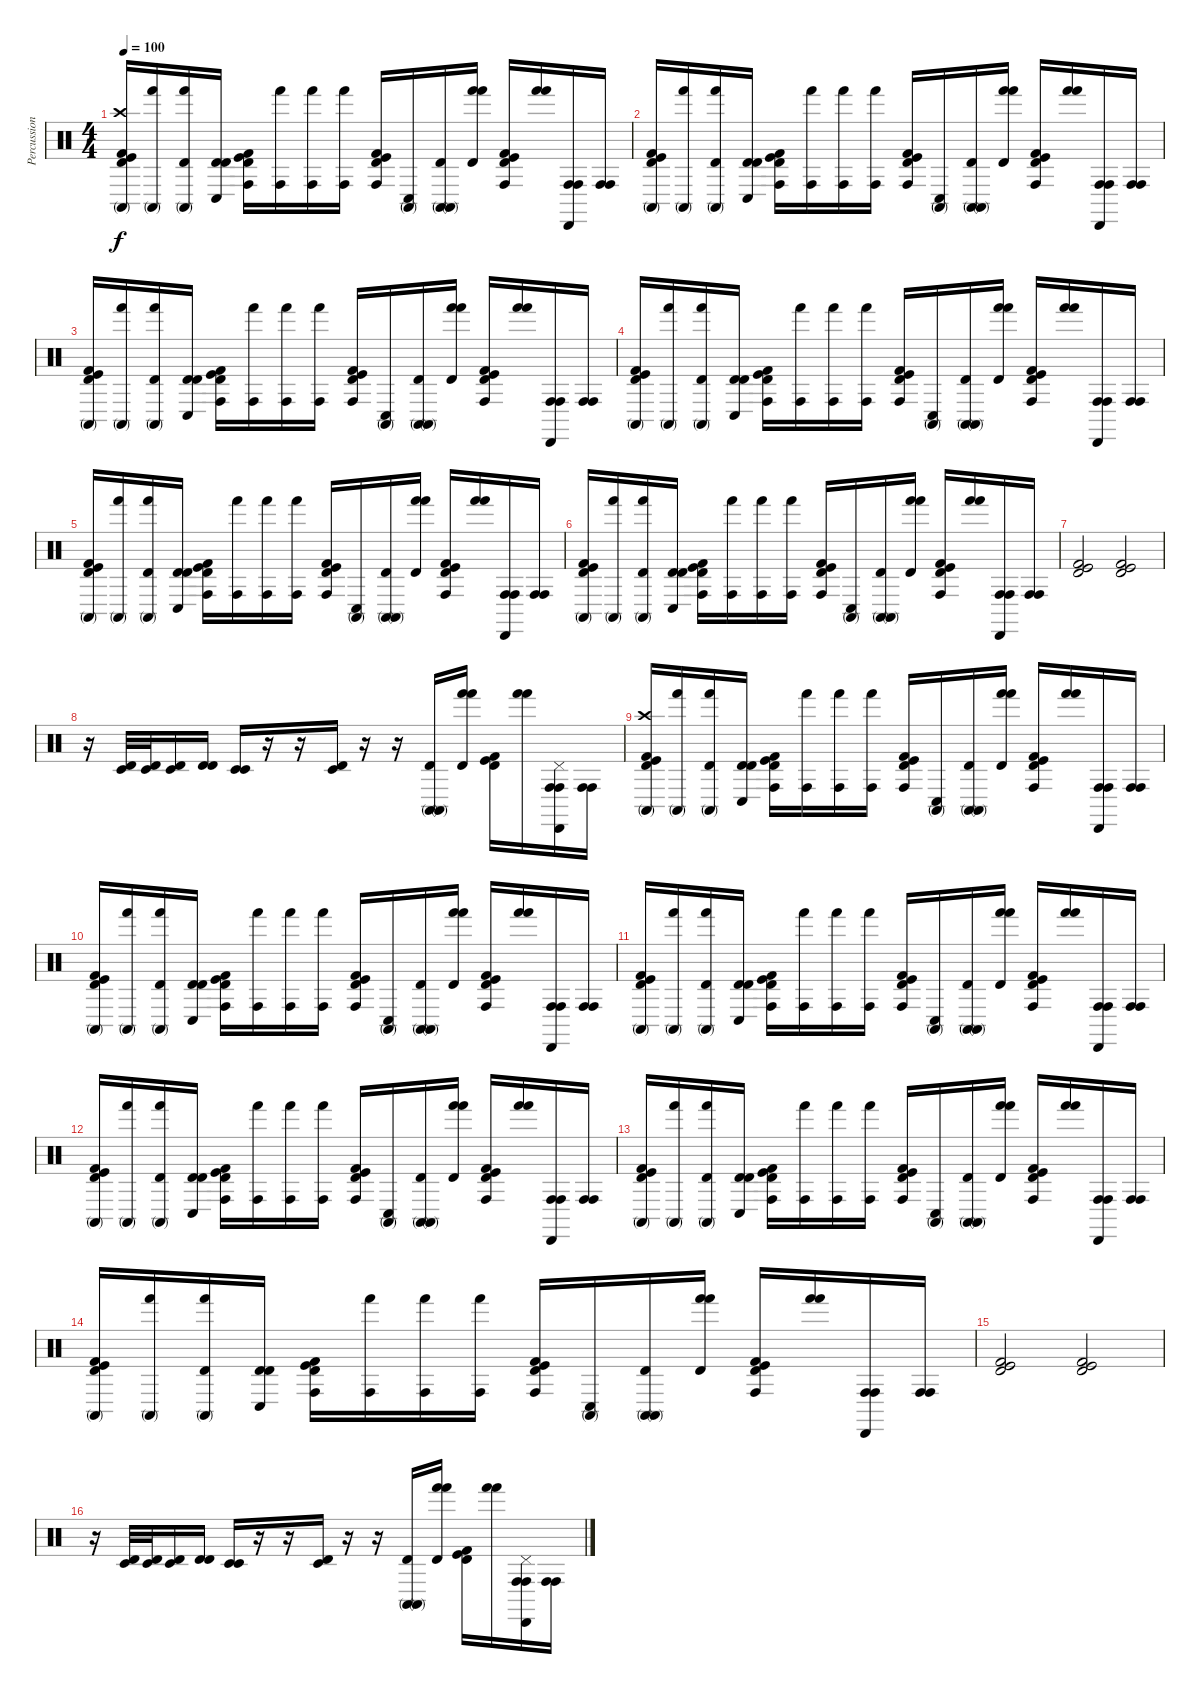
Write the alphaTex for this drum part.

\track ("Percussion" "Percussion") {instrument percussion}
\staff {score}
\articulation defaults
\ts (4 4)
\tempo 100
\clef neutral
\ks c
("Conga high (mute)" "Timbale high (hit)" "Crash high (hit)" "Kick (hit) 2" "Kick (hit)").16{dy f} ("Conga high (mute)" "Hand (hit)").16 ("Conga high (mute)" "Hand (hit)" "Timbale high (hit)").16 ("Conga low (hit)" "Timbale high (hit)" "Timbale high (hit)").16 ("Conga high (hit)" "Timbale high (hit)" "Kick (hit) 2" "Kick (hit)").16 ("Conga high (hit)" "Hand (hit)").16 ("Conga high (hit)" "Hand (hit)").16 ("Conga high (hit)" "Hand (hit)").16 ("Conga high (hit)" "Timbale high (hit)" "Kick (hit) 2" "Kick (hit)").16 ("Conga high (mute)" "Conga low (hit)").16 ("Conga high (mute)" "Conga high (mute)" "Timbale high (hit)").16 ("Hand (hit)" "Hand (hit)" "Timbale high (hit)").16 ("Conga high (hit)" "Timbale high (hit)" "Kick (hit) 2" "Kick (hit)").16 ("Hand (hit)" "Hand (hit)").16 ("Conga high (hit)" "Conga high (hit)" "Cabasa (hit)").16 ("Conga high (hit)" "Conga high (hit)").16 |
("Conga high (mute)" "Timbale high (hit)" "Kick (hit) 2" "Kick (hit)").16 ("Conga high (mute)" "Hand (hit)").16 ("Conga high (mute)" "Hand (hit)" "Timbale high (hit)").16 ("Conga low (hit)" "Timbale high (hit)" "Timbale high (hit)").16 ("Conga high (hit)" "Timbale high (hit)" "Kick (hit) 2" "Kick (hit)").16 ("Conga high (hit)" "Hand (hit)").16 ("Conga high (hit)" "Hand (hit)").16 ("Conga high (hit)" "Hand (hit)").16 ("Conga high (hit)" "Timbale high (hit)" "Kick (hit) 2" "Kick (hit)").16 ("Conga high (mute)" "Conga low (hit)").16 ("Conga high (mute)" "Conga high (mute)" "Timbale high (hit)").16 ("Hand (hit)" "Hand (hit)" "Timbale high (hit)").16 ("Conga high (hit)" "Timbale high (hit)" "Kick (hit) 2" "Kick (hit)").16 ("Hand (hit)" "Hand (hit)").16 ("Conga high (hit)" "Conga high (hit)" "Cabasa (hit)").16 ("Conga high (hit)" "Conga high (hit)").16 |
("Conga high (mute)" "Timbale high (hit)" "Kick (hit) 2" "Kick (hit)").16 ("Conga high (mute)" "Hand (hit)").16 ("Conga high (mute)" "Hand (hit)" "Timbale high (hit)").16 ("Conga low (hit)" "Timbale high (hit)" "Timbale high (hit)").16 ("Conga high (hit)" "Timbale high (hit)" "Kick (hit) 2" "Kick (hit)").16 ("Conga high (hit)" "Hand (hit)").16 ("Conga high (hit)" "Hand (hit)").16 ("Conga high (hit)" "Hand (hit)").16 ("Conga high (hit)" "Timbale high (hit)" "Kick (hit) 2" "Kick (hit)").16 ("Conga high (mute)" "Conga low (hit)").16 ("Conga high (mute)" "Conga high (mute)" "Timbale high (hit)").16 ("Hand (hit)" "Hand (hit)" "Timbale high (hit)").16 ("Conga high (hit)" "Timbale high (hit)" "Kick (hit) 2" "Kick (hit)").16 ("Hand (hit)" "Hand (hit)").16 ("Conga high (hit)" "Conga high (hit)" "Cabasa (hit)").16 ("Conga high (hit)" "Conga high (hit)").16 |
("Conga high (mute)" "Timbale high (hit)" "Kick (hit) 2" "Kick (hit)").16 ("Conga high (mute)" "Hand (hit)").16 ("Conga high (mute)" "Hand (hit)" "Timbale high (hit)").16 ("Conga low (hit)" "Timbale high (hit)" "Timbale high (hit)").16 ("Conga high (hit)" "Timbale high (hit)" "Kick (hit) 2" "Kick (hit)").16 ("Conga high (hit)" "Hand (hit)").16 ("Conga high (hit)" "Hand (hit)").16 ("Conga high (hit)" "Hand (hit)").16 ("Conga high (hit)" "Timbale high (hit)" "Kick (hit) 2" "Kick (hit)").16 ("Conga high (mute)" "Conga low (hit)").16 ("Conga high (mute)" "Conga high (mute)" "Timbale high (hit)").16 ("Hand (hit)" "Hand (hit)" "Timbale high (hit)").16 ("Conga high (hit)" "Timbale high (hit)" "Kick (hit) 2" "Kick (hit)").16 ("Hand (hit)" "Hand (hit)").16 ("Conga high (hit)" "Conga high (hit)" "Cabasa (hit)").16 ("Conga high (hit)" "Conga high (hit)").16 |
("Conga high (mute)" "Timbale high (hit)" "Kick (hit) 2" "Kick (hit)").16 ("Conga high (mute)" "Hand (hit)").16 ("Conga high (mute)" "Hand (hit)" "Timbale high (hit)").16 ("Conga low (hit)" "Timbale high (hit)" "Timbale high (hit)").16 ("Conga high (hit)" "Timbale high (hit)" "Kick (hit) 2" "Kick (hit)").16 ("Conga high (hit)" "Hand (hit)").16 ("Conga high (hit)" "Hand (hit)").16 ("Conga high (hit)" "Hand (hit)").16 ("Conga high (hit)" "Timbale high (hit)" "Kick (hit) 2" "Kick (hit)").16 ("Conga high (mute)" "Conga low (hit)").16 ("Conga high (mute)" "Conga high (mute)" "Timbale high (hit)").16 ("Hand (hit)" "Hand (hit)" "Timbale high (hit)").16 ("Conga high (hit)" "Timbale high (hit)" "Kick (hit) 2" "Kick (hit)").16 ("Hand (hit)" "Hand (hit)").16 ("Conga high (hit)" "Conga high (hit)" "Cabasa (hit)").16 ("Conga high (hit)" "Conga high (hit)").16 |
("Conga high (mute)" "Timbale high (hit)" "Kick (hit) 2" "Kick (hit)").16 ("Conga high (mute)" "Hand (hit)").16 ("Conga high (mute)" "Hand (hit)" "Timbale high (hit)").16 ("Conga low (hit)" "Timbale high (hit)" "Timbale high (hit)").16 ("Conga high (hit)" "Timbale high (hit)" "Kick (hit) 2" "Kick (hit)").16 ("Conga high (hit)" "Hand (hit)").16 ("Conga high (hit)" "Hand (hit)").16 ("Conga high (hit)" "Hand (hit)").16 ("Conga high (hit)" "Timbale high (hit)" "Kick (hit) 2" "Kick (hit)").16 ("Conga high (mute)" "Conga low (hit)").16 ("Conga high (mute)" "Conga high (mute)" "Timbale high (hit)").16 ("Hand (hit)" "Hand (hit)" "Timbale high (hit)").16 ("Conga high (hit)" "Timbale high (hit)" "Kick (hit) 2" "Kick (hit)").16 ("Hand (hit)" "Hand (hit)").16 ("Conga high (hit)" "Conga high (hit)" "Cabasa (hit)").16 ("Conga high (hit)" "Conga high (hit)").16 |
("Timbale high (hit)" "Kick (hit) 2" "Kick (hit)").2 ("Timbale high (hit)" "Kick (hit) 2" "Kick (hit)").2 |
r.16 ("Timbale high (hit)" "Timbale low (hit)").32 ("Timbale high (hit)" "Timbale low (hit)").32 ("Timbale high (hit)" "Timbale low (hit)").16 ("Timbale high (hit)" "Timbale high (hit)").16 ("Timbale low (hit)" "Timbale low (hit)").16 r.16 r.16 ("Timbale high (hit)" "Timbale low (hit)").16 r.16 r.16 ("Conga high (mute)" "Conga high (mute)" "Timbale high (hit)").16 ("Hand (hit)" "Hand (hit)" "Timbale high (hit)").16 ("Timbale high (hit)" "Kick (hit) 2" "Kick (hit)").16 ("Hand (hit)" "Hand (hit)").16 ("Conga high (hit)" "Conga high (hit)" "Cabasa (hit)" "Pedal Hi-Hat (hit)").16 ("Conga high (hit)" "Conga high (hit)").16 |
("Conga high (mute)" "Timbale high (hit)" "Crash high (hit)" "Kick (hit) 2" "Kick (hit)").16 ("Conga high (mute)" "Hand (hit)").16 ("Conga high (mute)" "Hand (hit)" "Timbale high (hit)").16 ("Conga low (hit)" "Timbale high (hit)" "Timbale high (hit)").16 ("Conga high (hit)" "Timbale high (hit)" "Kick (hit) 2" "Kick (hit)").16 ("Conga high (hit)" "Hand (hit)").16 ("Conga high (hit)" "Hand (hit)").16 ("Conga high (hit)" "Hand (hit)").16 ("Conga high (hit)" "Timbale high (hit)" "Kick (hit) 2" "Kick (hit)").16 ("Conga high (mute)" "Conga low (hit)").16 ("Conga high (mute)" "Conga high (mute)" "Timbale high (hit)").16 ("Hand (hit)" "Hand (hit)" "Timbale high (hit)").16 ("Conga high (hit)" "Timbale high (hit)" "Kick (hit) 2" "Kick (hit)").16 ("Hand (hit)" "Hand (hit)").16 ("Conga high (hit)" "Conga high (hit)" "Cabasa (hit)").16 ("Conga high (hit)" "Conga high (hit)").16 |
("Conga high (mute)" "Timbale high (hit)" "Kick (hit) 2" "Kick (hit)").16 ("Conga high (mute)" "Hand (hit)").16 ("Conga high (mute)" "Hand (hit)" "Timbale high (hit)").16 ("Conga low (hit)" "Timbale high (hit)" "Timbale high (hit)").16 ("Conga high (hit)" "Timbale high (hit)" "Kick (hit) 2" "Kick (hit)").16 ("Conga high (hit)" "Hand (hit)").16 ("Conga high (hit)" "Hand (hit)").16 ("Conga high (hit)" "Hand (hit)").16 ("Conga high (hit)" "Timbale high (hit)" "Kick (hit) 2" "Kick (hit)").16 ("Conga high (mute)" "Conga low (hit)").16 ("Conga high (mute)" "Conga high (mute)" "Timbale high (hit)").16 ("Hand (hit)" "Hand (hit)" "Timbale high (hit)").16 ("Conga high (hit)" "Timbale high (hit)" "Kick (hit) 2" "Kick (hit)").16 ("Hand (hit)" "Hand (hit)").16 ("Conga high (hit)" "Conga high (hit)" "Cabasa (hit)").16 ("Conga high (hit)" "Conga high (hit)").16 |
("Conga high (mute)" "Timbale high (hit)" "Kick (hit) 2" "Kick (hit)").16 ("Conga high (mute)" "Hand (hit)").16 ("Conga high (mute)" "Hand (hit)" "Timbale high (hit)").16 ("Conga low (hit)" "Timbale high (hit)" "Timbale high (hit)").16 ("Conga high (hit)" "Timbale high (hit)" "Kick (hit) 2" "Kick (hit)").16 ("Conga high (hit)" "Hand (hit)").16 ("Conga high (hit)" "Hand (hit)").16 ("Conga high (hit)" "Hand (hit)").16 ("Conga high (hit)" "Timbale high (hit)" "Kick (hit) 2" "Kick (hit)").16 ("Conga high (mute)" "Conga low (hit)").16 ("Conga high (mute)" "Conga high (mute)" "Timbale high (hit)").16 ("Hand (hit)" "Hand (hit)" "Timbale high (hit)").16 ("Conga high (hit)" "Timbale high (hit)" "Kick (hit) 2" "Kick (hit)").16 ("Hand (hit)" "Hand (hit)").16 ("Conga high (hit)" "Conga high (hit)" "Cabasa (hit)").16 ("Conga high (hit)" "Conga high (hit)").16 |
("Conga high (mute)" "Timbale high (hit)" "Kick (hit) 2" "Kick (hit)").16 ("Conga high (mute)" "Hand (hit)").16 ("Conga high (mute)" "Hand (hit)" "Timbale high (hit)").16 ("Conga low (hit)" "Timbale high (hit)" "Timbale high (hit)").16 ("Conga high (hit)" "Timbale high (hit)" "Kick (hit) 2" "Kick (hit)").16 ("Conga high (hit)" "Hand (hit)").16 ("Conga high (hit)" "Hand (hit)").16 ("Conga high (hit)" "Hand (hit)").16 ("Conga high (hit)" "Timbale high (hit)" "Kick (hit) 2" "Kick (hit)").16 ("Conga high (mute)" "Conga low (hit)").16 ("Conga high (mute)" "Conga high (mute)" "Timbale high (hit)").16 ("Hand (hit)" "Hand (hit)" "Timbale high (hit)").16 ("Conga high (hit)" "Timbale high (hit)" "Kick (hit) 2" "Kick (hit)").16 ("Hand (hit)" "Hand (hit)").16 ("Conga high (hit)" "Conga high (hit)" "Cabasa (hit)").16 ("Conga high (hit)" "Conga high (hit)").16 |
("Conga high (mute)" "Timbale high (hit)" "Kick (hit) 2" "Kick (hit)").16 ("Conga high (mute)" "Hand (hit)").16 ("Conga high (mute)" "Hand (hit)" "Timbale high (hit)").16 ("Conga low (hit)" "Timbale high (hit)" "Timbale high (hit)").16 ("Conga high (hit)" "Timbale high (hit)" "Kick (hit) 2" "Kick (hit)").16 ("Conga high (hit)" "Hand (hit)").16 ("Conga high (hit)" "Hand (hit)").16 ("Conga high (hit)" "Hand (hit)").16 ("Conga high (hit)" "Timbale high (hit)" "Kick (hit) 2" "Kick (hit)").16 ("Conga high (mute)" "Conga low (hit)").16 ("Conga high (mute)" "Conga high (mute)" "Timbale high (hit)").16 ("Hand (hit)" "Hand (hit)" "Timbale high (hit)").16 ("Conga high (hit)" "Timbale high (hit)" "Kick (hit) 2" "Kick (hit)").16 ("Hand (hit)" "Hand (hit)").16 ("Conga high (hit)" "Conga high (hit)" "Cabasa (hit)").16 ("Conga high (hit)" "Conga high (hit)").16 |
("Conga high (mute)" "Timbale high (hit)" "Kick (hit) 2" "Kick (hit)").16 ("Conga high (mute)" "Hand (hit)").16 ("Conga high (mute)" "Hand (hit)" "Timbale high (hit)").16 ("Conga low (hit)" "Timbale high (hit)" "Timbale high (hit)").16 ("Conga high (hit)" "Timbale high (hit)" "Kick (hit) 2" "Kick (hit)").16 ("Conga high (hit)" "Hand (hit)").16 ("Conga high (hit)" "Hand (hit)").16 ("Conga high (hit)" "Hand (hit)").16 ("Conga high (hit)" "Timbale high (hit)" "Kick (hit) 2" "Kick (hit)").16 ("Conga high (mute)" "Conga low (hit)").16 ("Conga high (mute)" "Conga high (mute)" "Timbale high (hit)").16 ("Hand (hit)" "Hand (hit)" "Timbale high (hit)").16 ("Conga high (hit)" "Timbale high (hit)" "Kick (hit) 2" "Kick (hit)").16 ("Hand (hit)" "Hand (hit)").16 ("Conga high (hit)" "Conga high (hit)" "Cabasa (hit)").16 ("Conga high (hit)" "Conga high (hit)").16 |
("Timbale high (hit)" "Kick (hit) 2" "Kick (hit)").2 ("Timbale high (hit)" "Kick (hit) 2" "Kick (hit)").2 |
r.16 ("Timbale high (hit)" "Timbale low (hit)").32 ("Timbale high (hit)" "Timbale low (hit)").32 ("Timbale high (hit)" "Timbale low (hit)").16 ("Timbale high (hit)" "Timbale high (hit)").16 ("Timbale low (hit)" "Timbale low (hit)").16 r.16 r.16 ("Timbale high (hit)" "Timbale low (hit)").16 r.16 r.16 ("Conga high (mute)" "Conga high (mute)" "Timbale high (hit)").16 ("Hand (hit)" "Hand (hit)" "Timbale high (hit)").16 ("Timbale high (hit)" "Kick (hit) 2" "Kick (hit)").16 ("Hand (hit)" "Hand (hit)").16 ("Conga high (hit)" "Conga high (hit)" "Cabasa (hit)" "Pedal Hi-Hat (hit)").16 ("Conga high (hit)" "Conga high (hit)").16
